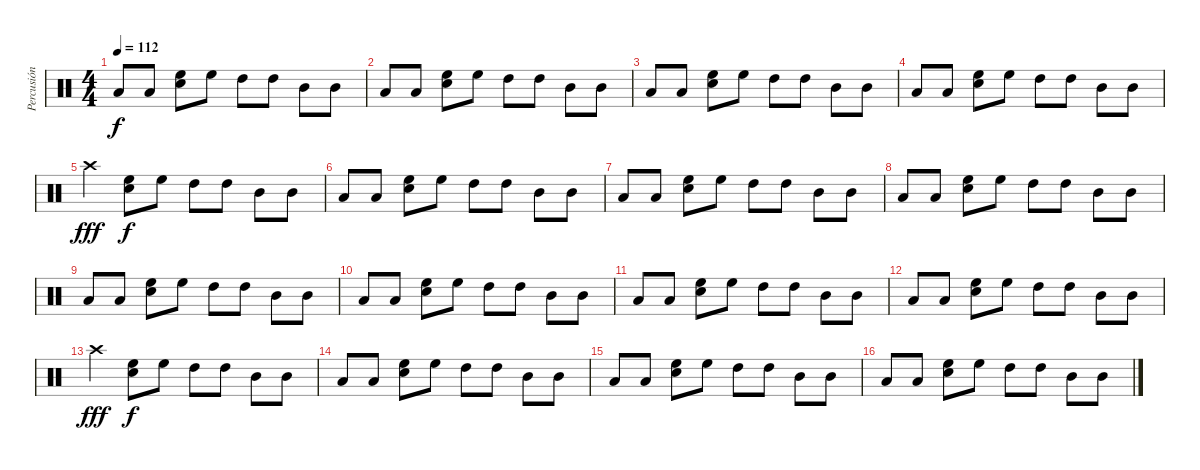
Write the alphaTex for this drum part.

\track ("Percusión" "Percusión") {instrument percussion}
\staff {score}
\articulation defaults
\ts (4 4)
\tempo 112
\clef neutral
\ks c "Low Tom (hit)".8{dy f} "Low Tom (hit)".8
("High Floor Tom (hit)" "Electric Snare (hit)").8 "High Floor Tom (hit)".8 "High Tom (hit)".8 "High Tom (hit)".8 "Mid Tom (hit)".8 "Mid Tom (hit)".8 |
"Low Tom (hit)".8 "Low Tom (hit)".8 ("High Floor Tom (hit)" "Electric Snare (hit)").8 "High Floor Tom (hit)".8 "High Tom (hit)".8 "High Tom (hit)".8 "Mid Tom (hit)".8 "Mid Tom (hit)".8 |
"Low Tom (hit)".8 "Low Tom (hit)".8 ("High Floor Tom (hit)" "Electric Snare (hit)").8 "High Floor Tom (hit)".8 "High Tom (hit)".8 "High Tom (hit)".8 "Mid Tom (hit)".8 "Mid Tom (hit)".8 |
"Low Tom (hit)".8 "Low Tom (hit)".8 ("High Floor Tom (hit)" "Electric Snare (hit)").8 "High Floor Tom (hit)".8 "High Tom (hit)".8 "High Tom (hit)".8 "Mid Tom (hit)".8 "Mid Tom (hit)".8 |
"Crash high (hit)".4{dy fff} ("High Floor Tom (hit)" "Electric Snare (hit)").8{dy f} "High Floor Tom (hit)".8 "High Tom (hit)".8 "High Tom (hit)".8 "Mid Tom (hit)".8 "Mid Tom (hit)".8 |
"Low Tom (hit)".8 "Low Tom (hit)".8 ("High Floor Tom (hit)" "Electric Snare (hit)").8 "High Floor Tom (hit)".8 "High Tom (hit)".8 "High Tom (hit)".8 "Mid Tom (hit)".8 "Mid Tom (hit)".8 |
"Low Tom (hit)".8 "Low Tom (hit)".8 ("High Floor Tom (hit)" "Electric Snare (hit)").8 "High Floor Tom (hit)".8 "High Tom (hit)".8 "High Tom (hit)".8 "Mid Tom (hit)".8 "Mid Tom (hit)".8 |
"Low Tom (hit)".8 "Low Tom (hit)".8 ("High Floor Tom (hit)" "Electric Snare (hit)").8 "High Floor Tom (hit)".8 "High Tom (hit)".8 "High Tom (hit)".8 "Mid Tom (hit)".8 "Mid Tom (hit)".8 |
"Low Tom (hit)".8 "Low Tom (hit)".8 ("High Floor Tom (hit)" "Electric Snare (hit)").8 "High Floor Tom (hit)".8 "High Tom (hit)".8 "High Tom (hit)".8 "Mid Tom (hit)".8 "Mid Tom (hit)".8 |
"Low Tom (hit)".8 "Low Tom (hit)".8 ("High Floor Tom (hit)" "Electric Snare (hit)").8 "High Floor Tom (hit)".8 "High Tom (hit)".8 "High Tom (hit)".8 "Mid Tom (hit)".8 "Mid Tom (hit)".8 |
"Low Tom (hit)".8 "Low Tom (hit)".8 ("High Floor Tom (hit)" "Electric Snare (hit)").8 "High Floor Tom (hit)".8 "High Tom (hit)".8 "High Tom (hit)".8 "Mid Tom (hit)".8 "Mid Tom (hit)".8 |
"Low Tom (hit)".8 "Low Tom (hit)".8 ("High Floor Tom (hit)" "Electric Snare (hit)").8 "High Floor Tom (hit)".8 "High Tom (hit)".8 "High Tom (hit)".8 "Mid Tom (hit)".8 "Mid Tom (hit)".8 |
"Crash high (hit)".4{dy fff} ("High Floor Tom (hit)" "Electric Snare (hit)").8{dy f} "High Floor Tom (hit)".8 "High Tom (hit)".8 "High Tom (hit)".8 "Mid Tom (hit)".8 "Mid Tom (hit)".8 |
"Low Tom (hit)".8 "Low Tom (hit)".8 ("High Floor Tom (hit)" "Electric Snare (hit)").8 "High Floor Tom (hit)".8 "High Tom (hit)".8 "High Tom (hit)".8 "Mid Tom (hit)".8 "Mid Tom (hit)".8 |
"Low Tom (hit)".8 "Low Tom (hit)".8 ("High Floor Tom (hit)" "Electric Snare (hit)").8 "High Floor Tom (hit)".8 "High Tom (hit)".8 "High Tom (hit)".8 "Mid Tom (hit)".8 "Mid Tom (hit)".8 |
"Low Tom (hit)".8 "Low Tom (hit)".8 ("High Floor Tom (hit)" "Electric Snare (hit)").8 "High Floor Tom (hit)".8 "High Tom (hit)".8 "High Tom (hit)".8 "Mid Tom (hit)".8 "Mid Tom (hit)".8
